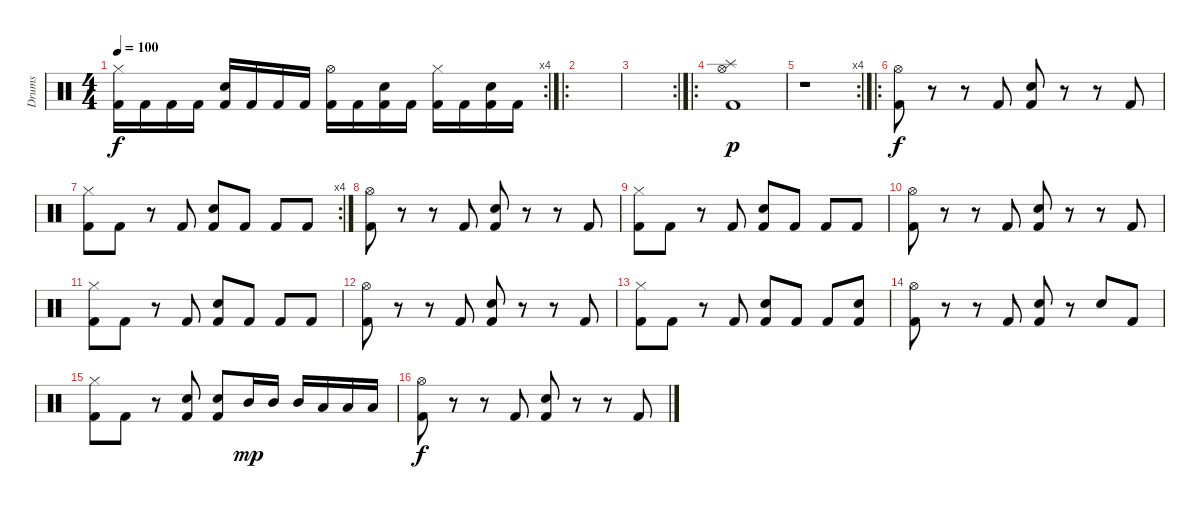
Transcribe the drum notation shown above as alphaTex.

\track ("Drums" "Drums") {instrument percussion}
\staff {score}
\articulation defaults
\rc 4
\ts (4 4)
\tempo 100
\clef neutral
\ks c
("Kick (hit) 2" "Hi-Hat (closed)").16{dy f} "Kick (hit) 2".16 "Kick (hit) 2".16 "Kick (hit) 2".16 ("Kick (hit) 2" "Snare (hit) 2").16 "Kick (hit) 2".16 "Kick (hit) 2".16 "Kick (hit) 2".16 ("Kick (hit) 2" "Hi-Hat (open)").16 "Kick (hit) 2".16 ("Kick (hit) 2" "Snare (hit) 2").16 "Kick (hit) 2".16 ("Kick (hit) 2" "Hi-Hat (closed)").16 "Kick (hit) 2".16 ("Kick (hit) 2" "Snare (hit) 2").16 "Kick (hit) 2".16 |
\ro
|
\rc 2
|
\ro
("Hi-Hat (open)" "Splash (hit)" "Kick (hit) 2").1{dy p} |
\rc 4
r.1 |
\ro
("Kick (hit) 2" "Hi-Hat (open)").8{dy f} r.8 r.8 "Kick (hit) 2".8 ("Kick (hit) 2" "Snare (hit) 2").8 r.8 r.8 "Kick (hit) 2".8 |
\rc 4
("Kick (hit) 2" "Hi-Hat (closed)").8 "Kick (hit) 2".8 r.8 "Kick (hit) 2".8 ("Kick (hit) 2" "Snare (hit) 2").8 "Kick (hit) 2".8 "Kick (hit) 2".8 "Kick (hit) 2".8 |
("Kick (hit) 2" "Hi-Hat (open)").8 r.8 r.8 "Kick (hit) 2".8 ("Kick (hit) 2" "Snare (hit) 2").8 r.8 r.8 "Kick (hit) 2".8 |
("Kick (hit) 2" "Hi-Hat (closed)").8 "Kick (hit) 2".8 r.8 "Kick (hit) 2".8 ("Kick (hit) 2" "Snare (hit) 2").8 "Kick (hit) 2".8 "Kick (hit) 2".8 "Kick (hit) 2".8 |
("Kick (hit) 2" "Hi-Hat (open)").8 r.8 r.8 "Kick (hit) 2".8 ("Kick (hit) 2" "Snare (hit) 2").8 r.8 r.8 "Kick (hit) 2".8 |
("Kick (hit) 2" "Hi-Hat (closed)").8 "Kick (hit) 2".8 r.8 "Kick (hit) 2".8 ("Kick (hit) 2" "Snare (hit) 2").8 "Kick (hit) 2".8 "Kick (hit) 2".8 "Kick (hit) 2".8 |
("Kick (hit) 2" "Hi-Hat (open)").8 r.8 r.8 "Kick (hit) 2".8 ("Kick (hit) 2" "Snare (hit) 2").8 r.8 r.8 "Kick (hit) 2".8 |
("Kick (hit) 2" "Hi-Hat (closed)").8 "Kick (hit) 2".8 r.8 "Kick (hit) 2".8 ("Kick (hit) 2" "Snare (hit) 2").8 "Kick (hit) 2".8 "Kick (hit) 2".8 ("Kick (hit) 2" "Snare (hit) 2").8 |
("Kick (hit) 2" "Hi-Hat (open)").8 r.8 r.8 "Kick (hit) 2".8 ("Kick (hit) 2" "Snare (hit) 2").8 r.8 "Snare (hit) 2".8 "Kick (hit) 2".8 |
("Kick (hit) 2" "Hi-Hat (closed)").8 "Kick (hit) 2".8 r.8 ("Kick (hit) 2" "Snare (hit) 2").8 ("Kick (hit) 2" "Snare (hit) 2").8 "Mid Tom (hit)".16{dy mp} "Mid Tom (hit)".16 "Mid Tom (hit)".16 "Low Tom (hit)".16 "Low Tom (hit)".16 "Low Tom (hit)".16 |
("Kick (hit) 2" "Hi-Hat (open)").8{dy f} r.8 r.8 "Kick (hit) 2".8 ("Kick (hit) 2" "Snare (hit) 2").8 r.8 r.8 "Kick (hit) 2".8
